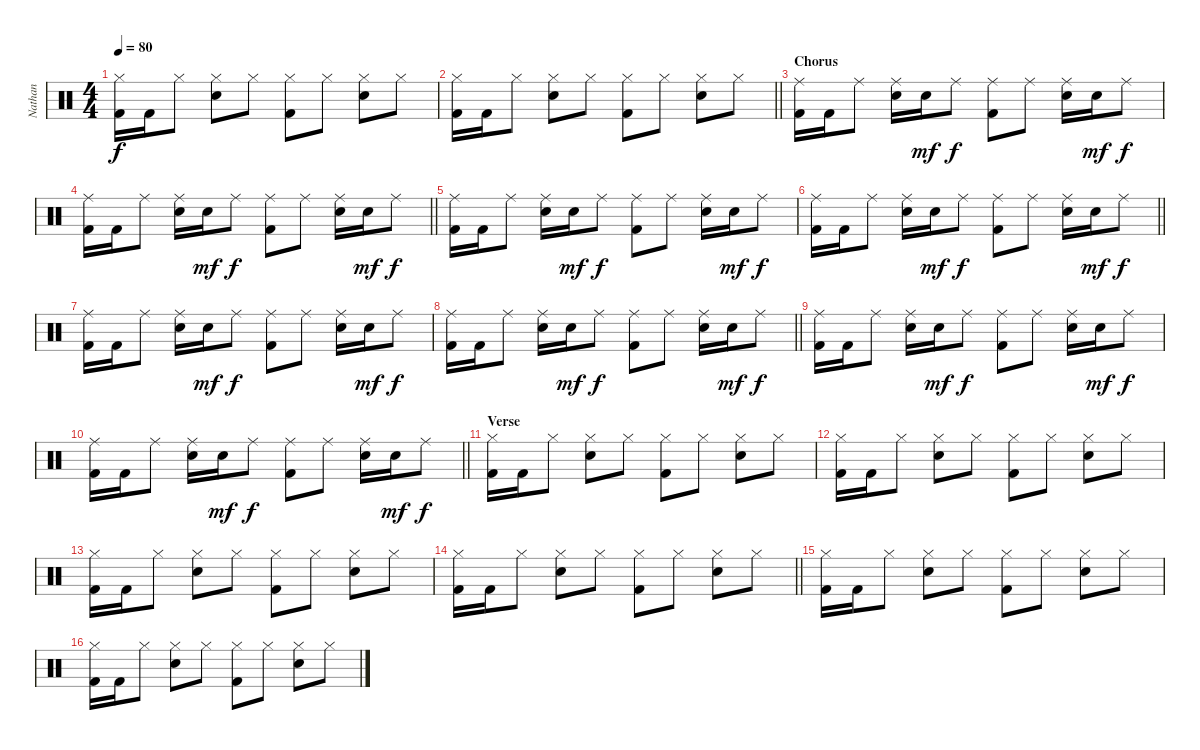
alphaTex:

\track ("Nathan" "Nathan") {instrument percussion}
\staff {score}
\articulation defaults
\ts (4 4)
\tempo 80
\clef neutral
\ks c
("Hi-Hat (closed)" "Kick (hit) 2").16{dy f} "Kick (hit) 2".16 "Hi-Hat (closed)".8 ("Hi-Hat (closed)" "Electric Snare (hit)").8 "Hi-Hat (closed)".8 ("Hi-Hat (closed)" "Kick (hit) 2").8 "Hi-Hat (closed)".8 ("Hi-Hat (closed)" "Electric Snare (hit)").8 "Hi-Hat (closed)".8 |
\barLineRight lightlight
("Hi-Hat (closed)" "Kick (hit) 2").16 "Kick (hit) 2".16 "Hi-Hat (closed)".8 ("Hi-Hat (closed)" "Electric Snare (hit)").8 "Hi-Hat (closed)".8 ("Hi-Hat (closed)" "Kick (hit) 2").8 "Hi-Hat (closed)".8 ("Hi-Hat (closed)" "Electric Snare (hit)").8 "Hi-Hat (closed)".8 |
\section ("" "Chorus")
("Ride (middle)" "Kick (hit) 2").16 "Kick (hit) 2".16 "Ride (middle)".8 ("Ride (middle)" "Electric Snare (hit)").16 "Electric Snare (hit)".16{dy mf} "Ride (middle)".8{dy f} ("Ride (middle)" "Kick (hit) 2").8 "Ride (middle)".8 ("Ride (middle)" "Electric Snare (hit)").16 "Electric Snare (hit)".16{dy mf} "Ride (middle)".8{dy f} |
\barLineRight lightlight
("Ride (middle)" "Kick (hit) 2").16 "Kick (hit) 2".16 "Ride (middle)".8 ("Ride (middle)" "Electric Snare (hit)").16 "Electric Snare (hit)".16{dy mf} "Ride (middle)".8{dy f} ("Ride (middle)" "Kick (hit) 2").8 "Ride (middle)".8 ("Ride (middle)" "Electric Snare (hit)").16 "Electric Snare (hit)".16{dy mf} "Ride (middle)".8{dy f} |
("Ride (middle)" "Kick (hit) 2").16 "Kick (hit) 2".16 "Ride (middle)".8 ("Ride (middle)" "Electric Snare (hit)").16 "Electric Snare (hit)".16{dy mf} "Ride (middle)".8{dy f} ("Ride (middle)" "Kick (hit) 2").8 "Ride (middle)".8 ("Ride (middle)" "Electric Snare (hit)").16 "Electric Snare (hit)".16{dy mf} "Ride (middle)".8{dy f} |
\barLineRight lightlight
("Ride (middle)" "Kick (hit) 2").16 "Kick (hit) 2".16 "Ride (middle)".8 ("Ride (middle)" "Electric Snare (hit)").16 "Electric Snare (hit)".16{dy mf} "Ride (middle)".8{dy f} ("Ride (middle)" "Kick (hit) 2").8 "Ride (middle)".8 ("Ride (middle)" "Electric Snare (hit)").16 "Electric Snare (hit)".16{dy mf} "Ride (middle)".8{dy f} |
("Ride (middle)" "Kick (hit) 2").16 "Kick (hit) 2".16 "Ride (middle)".8 ("Ride (middle)" "Electric Snare (hit)").16 "Electric Snare (hit)".16{dy mf} "Ride (middle)".8{dy f} ("Ride (middle)" "Kick (hit) 2").8 "Ride (middle)".8 ("Ride (middle)" "Electric Snare (hit)").16 "Electric Snare (hit)".16{dy mf} "Ride (middle)".8{dy f} |
\barLineRight lightlight
("Ride (middle)" "Kick (hit) 2").16 "Kick (hit) 2".16 "Ride (middle)".8 ("Ride (middle)" "Electric Snare (hit)").16 "Electric Snare (hit)".16{dy mf} "Ride (middle)".8{dy f} ("Ride (middle)" "Kick (hit) 2").8 "Ride (middle)".8 ("Ride (middle)" "Electric Snare (hit)").16 "Electric Snare (hit)".16{dy mf} "Ride (middle)".8{dy f} |
("Ride (middle)" "Kick (hit) 2").16 "Kick (hit) 2".16 "Ride (middle)".8 ("Ride (middle)" "Electric Snare (hit)").16 "Electric Snare (hit)".16{dy mf} "Ride (middle)".8{dy f} ("Ride (middle)" "Kick (hit) 2").8 "Ride (middle)".8 ("Ride (middle)" "Electric Snare (hit)").16 "Electric Snare (hit)".16{dy mf} "Ride (middle)".8{dy f} |
\barLineRight lightlight
("Ride (middle)" "Kick (hit) 2").16 "Kick (hit) 2".16 "Ride (middle)".8 ("Ride (middle)" "Electric Snare (hit)").16 "Electric Snare (hit)".16{dy mf} "Ride (middle)".8{dy f} ("Ride (middle)" "Kick (hit) 2").8 "Ride (middle)".8 ("Ride (middle)" "Electric Snare (hit)").16 "Electric Snare (hit)".16{dy mf} "Ride (middle)".8{dy f} |
\section ("" "Verse")
("Hi-Hat (closed)" "Kick (hit) 2").16 "Kick (hit) 2".16 "Hi-Hat (closed)".8 ("Hi-Hat (closed)" "Electric Snare (hit)").8 "Hi-Hat (closed)".8 ("Hi-Hat (closed)" "Kick (hit) 2").8 "Hi-Hat (closed)".8 ("Hi-Hat (closed)" "Electric Snare (hit)").8 "Hi-Hat (closed)".8 |
("Hi-Hat (closed)" "Kick (hit) 2").16 "Kick (hit) 2".16 "Hi-Hat (closed)".8 ("Hi-Hat (closed)" "Electric Snare (hit)").8 "Hi-Hat (closed)".8 ("Hi-Hat (closed)" "Kick (hit) 2").8 "Hi-Hat (closed)".8 ("Hi-Hat (closed)" "Electric Snare (hit)").8 "Hi-Hat (closed)".8 |
("Hi-Hat (closed)" "Kick (hit) 2").16 "Kick (hit) 2".16 "Hi-Hat (closed)".8 ("Hi-Hat (closed)" "Electric Snare (hit)").8 "Hi-Hat (closed)".8 ("Hi-Hat (closed)" "Kick (hit) 2").8 "Hi-Hat (closed)".8 ("Hi-Hat (closed)" "Electric Snare (hit)").8 "Hi-Hat (closed)".8 |
\barLineRight lightlight
("Hi-Hat (closed)" "Kick (hit) 2").16 "Kick (hit) 2".16 "Hi-Hat (closed)".8 ("Hi-Hat (closed)" "Electric Snare (hit)").8 "Hi-Hat (closed)".8 ("Hi-Hat (closed)" "Kick (hit) 2").8 "Hi-Hat (closed)".8 ("Hi-Hat (closed)" "Electric Snare (hit)").8 "Hi-Hat (closed)".8 |
("Hi-Hat (closed)" "Kick (hit) 2").16 "Kick (hit) 2".16 "Hi-Hat (closed)".8 ("Hi-Hat (closed)" "Electric Snare (hit)").8 "Hi-Hat (closed)".8 ("Hi-Hat (closed)" "Kick (hit) 2").8 "Hi-Hat (closed)".8 ("Hi-Hat (closed)" "Electric Snare (hit)").8 "Hi-Hat (closed)".8 |
("Hi-Hat (closed)" "Kick (hit) 2").16 "Kick (hit) 2".16 "Hi-Hat (closed)".8 ("Hi-Hat (closed)" "Electric Snare (hit)").8 "Hi-Hat (closed)".8 ("Hi-Hat (closed)" "Kick (hit) 2").8 "Hi-Hat (closed)".8 ("Hi-Hat (closed)" "Electric Snare (hit)").8 "Hi-Hat (closed)".8
